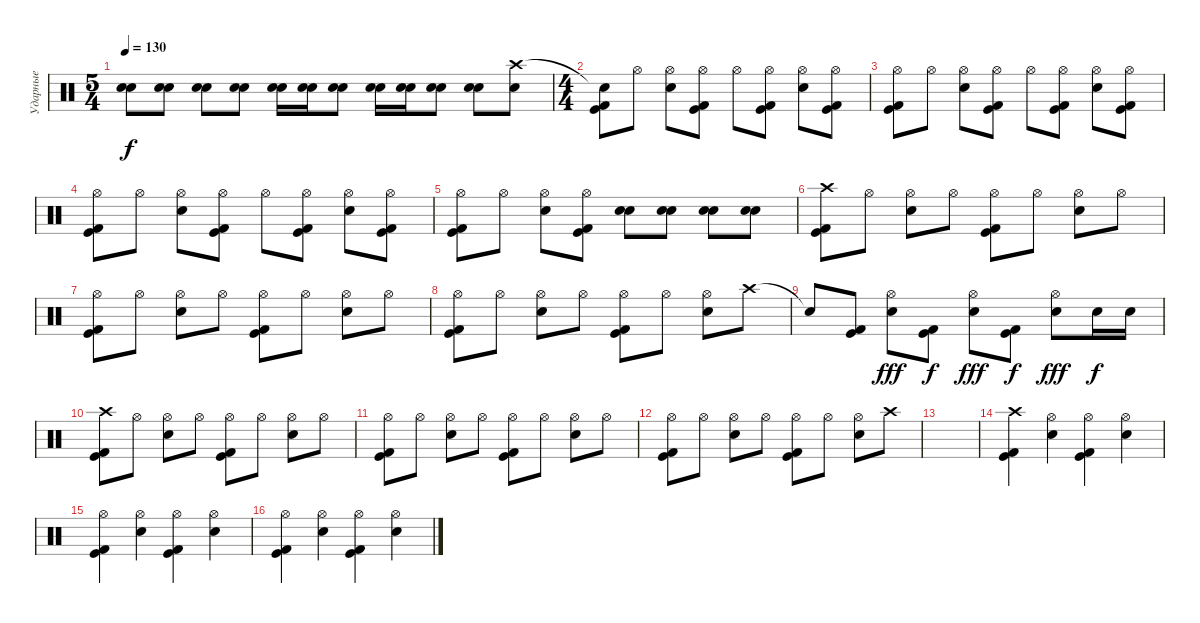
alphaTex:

\track ("Ударные" "Ударные") {instrument percussion}
\staff {score}
\articulation defaults
\ts (5 4)
\tempo 130
\clef neutral
\ks c
("Electric Snare (hit)" "Electric Snare (hit)").8{dy f} ("Electric Snare (hit)" "Electric Snare (hit)").8 ("Electric Snare (hit)" "Electric Snare (hit)").8 ("Electric Snare (hit)" "Electric Snare (hit)").8 ("Electric Snare (hit)" "Electric Snare (hit)").16 ("Electric Snare (hit)" "Electric Snare (hit)").16 ("Electric Snare (hit)" "Electric Snare (hit)").8 ("Electric Snare (hit)" "Electric Snare (hit)").16 ("Electric Snare (hit)" "Electric Snare (hit)").16 ("Electric Snare (hit)" "Electric Snare (hit)").8 ("Electric Snare (hit)" "Electric Snare (hit)").8 ("Crash high (hit)" "Electric Snare (hit)").8 |
\ts (4 4)
("Snare (hit)"{t} "Kick (hit) 2" "Kick (hit)").8 "Hi-Hat (open)".8 ("Hi-Hat (open)" "Electric Snare (hit)").8 ("Hi-Hat (open)" "Kick (hit) 2" "Kick (hit)").8 "Hi-Hat (open)".8 ("Hi-Hat (open)" "Kick (hit) 2" "Kick (hit)").8 ("Hi-Hat (open)" "Electric Snare (hit)").8 ("Hi-Hat (open)" "Kick (hit) 2" "Kick (hit)").8 |
("Hi-Hat (open)" "Kick (hit) 2" "Kick (hit)").8 "Hi-Hat (open)".8 ("Hi-Hat (open)" "Electric Snare (hit)").8 ("Hi-Hat (open)" "Kick (hit) 2" "Kick (hit)").8 "Hi-Hat (open)".8 ("Hi-Hat (open)" "Kick (hit) 2" "Kick (hit)").8 ("Hi-Hat (open)" "Electric Snare (hit)").8 ("Hi-Hat (open)" "Kick (hit) 2" "Kick (hit)").8 |
("Hi-Hat (open)" "Kick (hit) 2" "Kick (hit)").8 "Hi-Hat (open)".8 ("Hi-Hat (open)" "Electric Snare (hit)").8 ("Hi-Hat (open)" "Kick (hit) 2" "Kick (hit)").8 "Hi-Hat (open)".8 ("Hi-Hat (open)" "Kick (hit) 2" "Kick (hit)").8 ("Hi-Hat (open)" "Electric Snare (hit)").8 ("Hi-Hat (open)" "Kick (hit) 2" "Kick (hit)").8 |
("Hi-Hat (open)" "Kick (hit) 2" "Kick (hit)").8 "Hi-Hat (open)".8 ("Hi-Hat (open)" "Electric Snare (hit)").8 ("Hi-Hat (open)" "Kick (hit) 2" "Kick (hit)").8 ("Electric Snare (hit)" "Electric Snare (hit)").8 ("Electric Snare (hit)" "Electric Snare (hit)").8 ("Electric Snare (hit)" "Electric Snare (hit)").8 ("Electric Snare (hit)" "Electric Snare (hit)").8 |
("Crash high (hit)" "Kick (hit) 2" "Kick (hit)").8 "Hi-Hat (open)".8 ("Hi-Hat (open)" "Electric Snare (hit)").8 "Hi-Hat (open)".8 ("Hi-Hat (open)" "Kick (hit) 2" "Kick (hit)").8 "Hi-Hat (open)".8 ("Hi-Hat (open)" "Electric Snare (hit)").8 "Hi-Hat (open)".8 |
("Hi-Hat (open)" "Kick (hit) 2" "Kick (hit)").8 "Hi-Hat (open)".8 ("Hi-Hat (open)" "Electric Snare (hit)").8 "Hi-Hat (open)".8 ("Hi-Hat (open)" "Kick (hit) 2" "Kick (hit)").8 "Hi-Hat (open)".8 ("Hi-Hat (open)" "Electric Snare (hit)").8 "Hi-Hat (open)".8 |
("Hi-Hat (open)" "Kick (hit) 2" "Kick (hit)").8 "Hi-Hat (open)".8 ("Hi-Hat (open)" "Electric Snare (hit)").8 "Hi-Hat (open)".8 ("Hi-Hat (open)" "Kick (hit) 2" "Kick (hit)").8 "Hi-Hat (open)".8 ("Hi-Hat (open)" "Electric Snare (hit)").8 "Crash high (hit)".8 |
"Snare (hit)"{t}.8 ("Kick (hit) 2" "Kick (hit)").8 ("Hi-Hat (open)" "Electric Snare (hit)").8{dy fff} ("Kick (hit) 2" "Kick (hit)").8{dy f} ("Hi-Hat (open)" "Electric Snare (hit)").8{dy fff} ("Kick (hit) 2" "Kick (hit)").8{dy f} ("Hi-Hat (open)" "Electric Snare (hit)").8{dy fff} "Electric Snare (hit)".16{dy f} "Electric Snare (hit)".16 |
("Crash high (hit)" "Kick (hit) 2" "Kick (hit)").8 "Hi-Hat (open)".8 ("Hi-Hat (open)" "Electric Snare (hit)").8 "Hi-Hat (open)".8 ("Hi-Hat (open)" "Kick (hit) 2" "Kick (hit)").8 "Hi-Hat (open)".8 ("Hi-Hat (open)" "Electric Snare (hit)").8 "Hi-Hat (open)".8 |
("Hi-Hat (open)" "Kick (hit) 2" "Kick (hit)").8 "Hi-Hat (open)".8 ("Hi-Hat (open)" "Electric Snare (hit)").8 "Hi-Hat (open)".8 ("Hi-Hat (open)" "Kick (hit) 2" "Kick (hit)").8 "Hi-Hat (open)".8 ("Hi-Hat (open)" "Electric Snare (hit)").8 "Hi-Hat (open)".8 |
("Hi-Hat (open)" "Kick (hit) 2" "Kick (hit)").8 "Hi-Hat (open)".8 ("Hi-Hat (open)" "Electric Snare (hit)").8 "Hi-Hat (open)".8 ("Hi-Hat (open)" "Kick (hit) 2" "Kick (hit)").8 "Hi-Hat (open)".8 ("Hi-Hat (open)" "Electric Snare (hit)").8 "Crash high (hit)".8 |
|
("Crash high (hit)" "Kick (hit) 2" "Kick (hit)").4 ("Hi-Hat (open)" "Electric Snare (hit)").4 ("Hi-Hat (open)" "Kick (hit) 2" "Kick (hit)").4 ("Hi-Hat (open)" "Electric Snare (hit)").4 |
("Hi-Hat (open)" "Kick (hit) 2" "Kick (hit)").4 ("Hi-Hat (open)" "Electric Snare (hit)").4 ("Hi-Hat (open)" "Kick (hit) 2" "Kick (hit)").4 ("Hi-Hat (open)" "Electric Snare (hit)").4 |
("Hi-Hat (open)" "Kick (hit) 2" "Kick (hit)").4 ("Hi-Hat (open)" "Electric Snare (hit)").4 ("Hi-Hat (open)" "Kick (hit) 2" "Kick (hit)").4 ("Hi-Hat (open)" "Electric Snare (hit)").4
